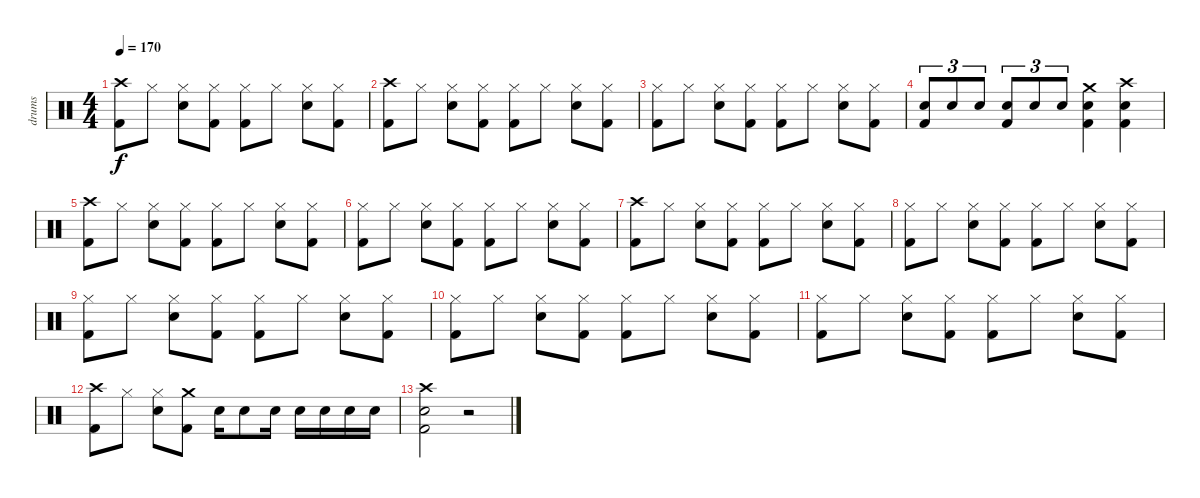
\track ("drums" "drums") {instrument percussion}
\staff {score}
\articulation defaults
\ts (4 4)
\tempo 170
\clef neutral
\ks c
("Crash high (hit)" "Kick (hit) 2").8{dy f} "Hi-Hat (closed)".8 ("Hi-Hat (closed)" "Snare (hit) 2").8 ("Hi-Hat (closed)" "Kick (hit) 2").8 ("Hi-Hat (closed)" "Kick (hit) 2").8 "Hi-Hat (closed)".8 ("Hi-Hat (closed)" "Snare (hit) 2").8 ("Hi-Hat (closed)" "Kick (hit) 2").8 |
("Crash high (hit)" "Kick (hit) 2").8 "Hi-Hat (closed)".8 ("Hi-Hat (closed)" "Snare (hit) 2").8 ("Hi-Hat (closed)" "Kick (hit) 2").8 ("Hi-Hat (closed)" "Kick (hit) 2").8 "Hi-Hat (closed)".8 ("Hi-Hat (closed)" "Snare (hit) 2").8 ("Hi-Hat (closed)" "Kick (hit) 2").8 |
("Hi-Hat (closed)" "Kick (hit) 2").8 "Hi-Hat (closed)".8 ("Hi-Hat (closed)" "Snare (hit) 2").8 ("Hi-Hat (closed)" "Kick (hit) 2").8 ("Hi-Hat (closed)" "Kick (hit) 2").8 "Hi-Hat (closed)".8 ("Hi-Hat (closed)" "Snare (hit) 2").8 ("Hi-Hat (closed)" "Kick (hit) 2").8 |
("Snare (hit) 2" "Kick (hit) 2").8{tu (3 2)} "Snare (hit) 2".8{tu (3 2)} "Snare (hit) 2".8{tu (3 2)} ("Snare (hit) 2" "Kick (hit) 2").8{tu (3 2)} "Snare (hit) 2".8{tu (3 2)} "Snare (hit) 2".8{tu (3 2)} ("Crash medium (hit)" "Snare (hit) 2" "Kick (hit) 2").4 ("Crash high (hit)" "Snare (hit) 2" "Kick (hit) 2").4 |
("Crash high (hit)" "Kick (hit) 2").8 "Hi-Hat (closed)".8 ("Hi-Hat (closed)" "Snare (hit) 2").8 ("Hi-Hat (closed)" "Kick (hit) 2").8 ("Hi-Hat (closed)" "Kick (hit) 2").8 "Hi-Hat (closed)".8 ("Hi-Hat (closed)" "Snare (hit) 2").8 ("Hi-Hat (closed)" "Kick (hit) 2").8 |
("Hi-Hat (closed)" "Kick (hit) 2").8 "Hi-Hat (closed)".8 ("Hi-Hat (closed)" "Snare (hit) 2").8 ("Hi-Hat (closed)" "Kick (hit) 2").8 ("Hi-Hat (closed)" "Kick (hit) 2").8 "Hi-Hat (closed)".8 ("Hi-Hat (closed)" "Snare (hit) 2").8 ("Hi-Hat (closed)" "Kick (hit) 2").8 |
("Crash high (hit)" "Kick (hit) 2").8 "Hi-Hat (closed)".8 ("Hi-Hat (closed)" "Snare (hit) 2").8 ("Hi-Hat (closed)" "Kick (hit) 2").8 ("Hi-Hat (closed)" "Kick (hit) 2").8 "Hi-Hat (closed)".8 ("Hi-Hat (closed)" "Snare (hit) 2").8 ("Hi-Hat (closed)" "Kick (hit) 2").8 |
("Hi-Hat (closed)" "Kick (hit) 2").8 "Hi-Hat (closed)".8 ("Hi-Hat (closed)" "Snare (hit) 2").8 ("Hi-Hat (closed)" "Kick (hit) 2").8 ("Hi-Hat (closed)" "Kick (hit) 2").8 "Hi-Hat (closed)".8 ("Hi-Hat (closed)" "Snare (hit) 2").8 ("Hi-Hat (closed)" "Kick (hit) 2").8 |
("Hi-Hat (closed)" "Kick (hit) 2").8 "Hi-Hat (closed)".8 ("Hi-Hat (closed)" "Snare (hit) 2").8 ("Hi-Hat (closed)" "Kick (hit) 2").8 ("Hi-Hat (closed)" "Kick (hit) 2").8 "Hi-Hat (closed)".8 ("Hi-Hat (closed)" "Snare (hit) 2").8 ("Hi-Hat (closed)" "Kick (hit) 2").8 |
("Hi-Hat (closed)" "Kick (hit) 2").8 "Hi-Hat (closed)".8 ("Hi-Hat (closed)" "Snare (hit) 2").8 ("Hi-Hat (closed)" "Kick (hit) 2").8 ("Hi-Hat (closed)" "Kick (hit) 2").8 "Hi-Hat (closed)".8 ("Hi-Hat (closed)" "Snare (hit) 2").8 ("Hi-Hat (closed)" "Kick (hit) 2").8 |
("Hi-Hat (closed)" "Kick (hit) 2").8 "Hi-Hat (closed)".8 ("Hi-Hat (closed)" "Snare (hit) 2").8 ("Hi-Hat (closed)" "Kick (hit) 2").8 ("Hi-Hat (closed)" "Kick (hit) 2").8 "Hi-Hat (closed)".8 ("Hi-Hat (closed)" "Snare (hit) 2").8 ("Hi-Hat (closed)" "Kick (hit) 2").8 |
("Crash high (hit)" "Kick (hit) 2").8 "Hi-Hat (closed)".8 ("Hi-Hat (closed)" "Snare (hit) 2").8 ("Crash medium (hit)" "Kick (hit) 2").8 "Snare (hit) 2".16 "Snare (hit) 2".8 "Snare (hit) 2".16 "Snare (hit) 2".16 "Snare (hit) 2".16 "Snare (hit) 2".16 "Snare (hit) 2".16 |
("Crash high (hit)" "Kick (hit) 2" "Snare (hit) 2").2 r.2
